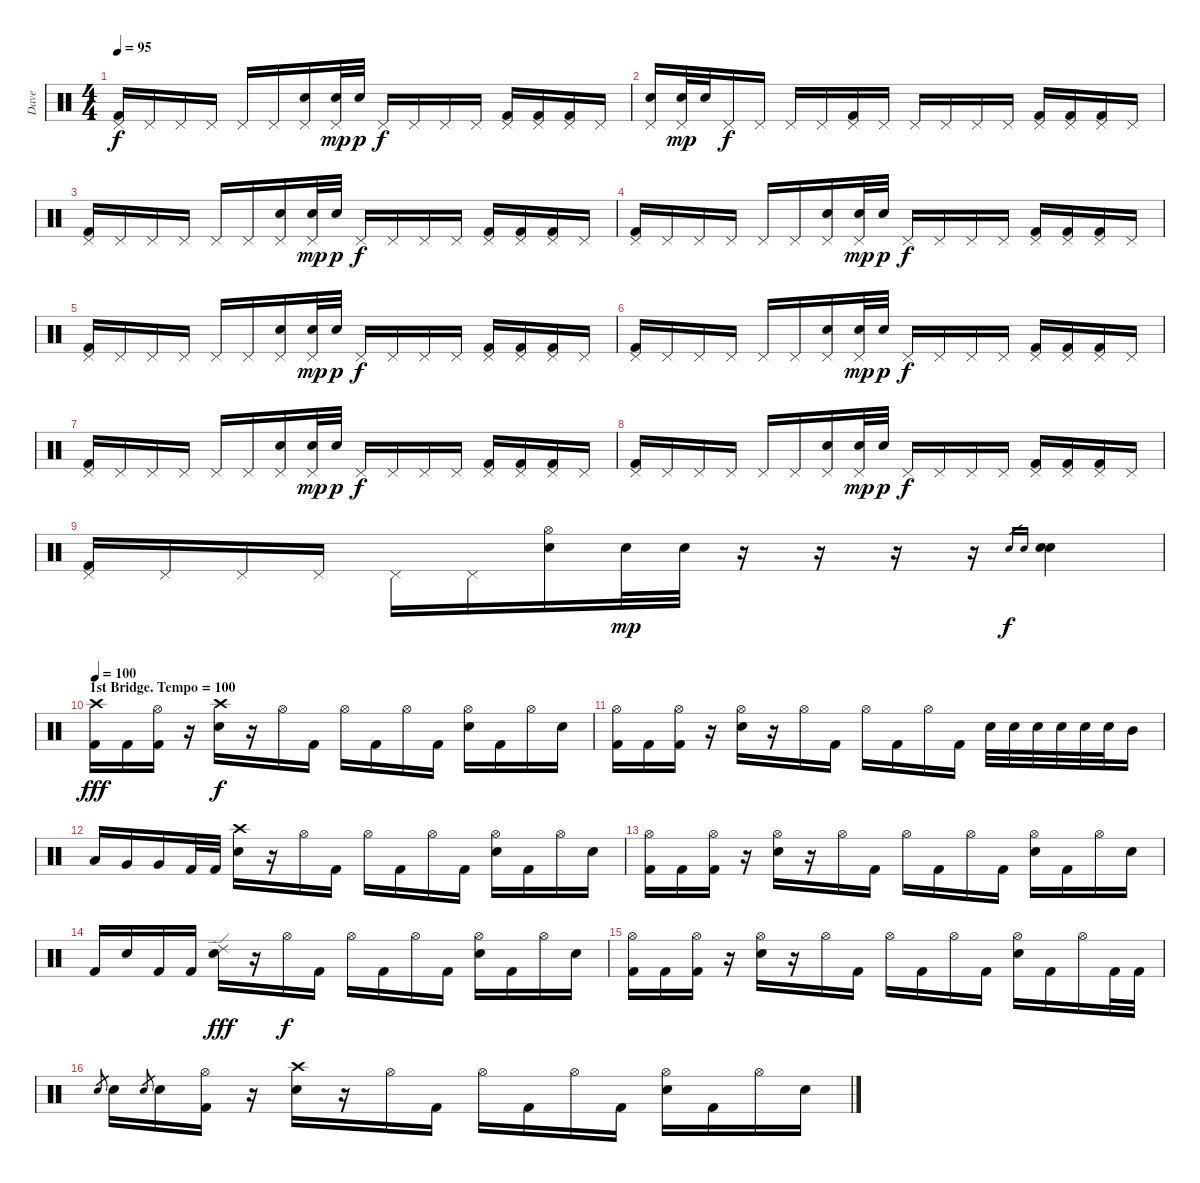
\track ("Dave" "Dave") {instrument percussion}
\staff {score}
\articulation defaults
\ts (4 4)
\tempo 95
\clef neutral
\ks c
("Pedal Hi-Hat (hit)" "Kick (hit) 2").16{dy f} "Pedal Hi-Hat (hit)".16 "Pedal Hi-Hat (hit)".16 "Pedal Hi-Hat (hit)".16 "Pedal Hi-Hat (hit)".16 "Pedal Hi-Hat (hit)".16 ("Pedal Hi-Hat (hit)" "Electric Snare (hit)").16 ("Pedal Hi-Hat (hit)" "Electric Snare (hit)").32{dy mp} "Electric Snare (hit)".32{dy p} "Pedal Hi-Hat (hit)".16{dy f} "Pedal Hi-Hat (hit)".16 "Pedal Hi-Hat (hit)".16 "Pedal Hi-Hat (hit)".16 ("Pedal Hi-Hat (hit)" "Kick (hit) 2").16 ("Pedal Hi-Hat (hit)" "Kick (hit) 2").16 ("Pedal Hi-Hat (hit)" "Kick (hit) 2").16 "Pedal Hi-Hat (hit)".16 |
("Pedal Hi-Hat (hit)" "Electric Snare (hit)").16 ("Pedal Hi-Hat (hit)" "Electric Snare (hit)").32{dy mp} "Electric Snare (hit)".32 "Pedal Hi-Hat (hit)".16{dy f} "Pedal Hi-Hat (hit)".16 "Pedal Hi-Hat (hit)".16 "Pedal Hi-Hat (hit)".16 ("Pedal Hi-Hat (hit)" "Kick (hit) 2").16 "Pedal Hi-Hat (hit)".16 "Pedal Hi-Hat (hit)".16 "Pedal Hi-Hat (hit)".16 "Pedal Hi-Hat (hit)".16 "Pedal Hi-Hat (hit)".16 ("Pedal Hi-Hat (hit)" "Kick (hit) 2").16 ("Pedal Hi-Hat (hit)" "Kick (hit) 2").16 ("Pedal Hi-Hat (hit)" "Kick (hit) 2").16 "Pedal Hi-Hat (hit)".16 |
("Pedal Hi-Hat (hit)" "Kick (hit) 2").16 "Pedal Hi-Hat (hit)".16 "Pedal Hi-Hat (hit)".16 "Pedal Hi-Hat (hit)".16 "Pedal Hi-Hat (hit)".16 "Pedal Hi-Hat (hit)".16 ("Pedal Hi-Hat (hit)" "Electric Snare (hit)").16 ("Pedal Hi-Hat (hit)" "Electric Snare (hit)").32{dy mp} "Electric Snare (hit)".32{dy p} "Pedal Hi-Hat (hit)".16{dy f} "Pedal Hi-Hat (hit)".16 "Pedal Hi-Hat (hit)".16 "Pedal Hi-Hat (hit)".16 ("Pedal Hi-Hat (hit)" "Kick (hit) 2").16 ("Pedal Hi-Hat (hit)" "Kick (hit) 2").16 ("Pedal Hi-Hat (hit)" "Kick (hit) 2").16 "Pedal Hi-Hat (hit)".16 |
("Pedal Hi-Hat (hit)" "Kick (hit) 2").16 "Pedal Hi-Hat (hit)".16 "Pedal Hi-Hat (hit)".16 "Pedal Hi-Hat (hit)".16 "Pedal Hi-Hat (hit)".16 "Pedal Hi-Hat (hit)".16 ("Pedal Hi-Hat (hit)" "Electric Snare (hit)").16 ("Pedal Hi-Hat (hit)" "Electric Snare (hit)").32{dy mp} "Electric Snare (hit)".32{dy p} "Pedal Hi-Hat (hit)".16{dy f} "Pedal Hi-Hat (hit)".16 "Pedal Hi-Hat (hit)".16 "Pedal Hi-Hat (hit)".16 ("Pedal Hi-Hat (hit)" "Kick (hit) 2").16 ("Pedal Hi-Hat (hit)" "Kick (hit) 2").16 ("Pedal Hi-Hat (hit)" "Kick (hit) 2").16 "Pedal Hi-Hat (hit)".16 |
("Pedal Hi-Hat (hit)" "Kick (hit) 2").16 "Pedal Hi-Hat (hit)".16 "Pedal Hi-Hat (hit)".16 "Pedal Hi-Hat (hit)".16 "Pedal Hi-Hat (hit)".16 "Pedal Hi-Hat (hit)".16 ("Pedal Hi-Hat (hit)" "Electric Snare (hit)").16 ("Pedal Hi-Hat (hit)" "Electric Snare (hit)").32{dy mp} "Electric Snare (hit)".32{dy p} "Pedal Hi-Hat (hit)".16{dy f} "Pedal Hi-Hat (hit)".16 "Pedal Hi-Hat (hit)".16 "Pedal Hi-Hat (hit)".16 ("Pedal Hi-Hat (hit)" "Kick (hit) 2").16 ("Pedal Hi-Hat (hit)" "Kick (hit) 2").16 ("Pedal Hi-Hat (hit)" "Kick (hit) 2").16 "Pedal Hi-Hat (hit)".16 |
("Pedal Hi-Hat (hit)" "Kick (hit) 2").16 "Pedal Hi-Hat (hit)".16 "Pedal Hi-Hat (hit)".16 "Pedal Hi-Hat (hit)".16 "Pedal Hi-Hat (hit)".16 "Pedal Hi-Hat (hit)".16 ("Pedal Hi-Hat (hit)" "Electric Snare (hit)").16 ("Pedal Hi-Hat (hit)" "Electric Snare (hit)").32{dy mp} "Electric Snare (hit)".32{dy p} "Pedal Hi-Hat (hit)".16{dy f} "Pedal Hi-Hat (hit)".16 "Pedal Hi-Hat (hit)".16 "Pedal Hi-Hat (hit)".16 ("Pedal Hi-Hat (hit)" "Kick (hit) 2").16 ("Pedal Hi-Hat (hit)" "Kick (hit) 2").16 ("Pedal Hi-Hat (hit)" "Kick (hit) 2").16 "Pedal Hi-Hat (hit)".16 |
("Pedal Hi-Hat (hit)" "Kick (hit) 2").16 "Pedal Hi-Hat (hit)".16 "Pedal Hi-Hat (hit)".16 "Pedal Hi-Hat (hit)".16 "Pedal Hi-Hat (hit)".16 "Pedal Hi-Hat (hit)".16 ("Pedal Hi-Hat (hit)" "Electric Snare (hit)").16 ("Pedal Hi-Hat (hit)" "Electric Snare (hit)").32{dy mp} "Electric Snare (hit)".32{dy p} "Pedal Hi-Hat (hit)".16{dy f} "Pedal Hi-Hat (hit)".16 "Pedal Hi-Hat (hit)".16 "Pedal Hi-Hat (hit)".16 ("Pedal Hi-Hat (hit)" "Kick (hit) 2").16 ("Pedal Hi-Hat (hit)" "Kick (hit) 2").16 ("Pedal Hi-Hat (hit)" "Kick (hit) 2").16 "Pedal Hi-Hat (hit)".16 |
("Pedal Hi-Hat (hit)" "Kick (hit) 2").16 "Pedal Hi-Hat (hit)".16 "Pedal Hi-Hat (hit)".16 "Pedal Hi-Hat (hit)".16 "Pedal Hi-Hat (hit)".16 "Pedal Hi-Hat (hit)".16 ("Pedal Hi-Hat (hit)" "Electric Snare (hit)").16 ("Pedal Hi-Hat (hit)" "Electric Snare (hit)").32{dy mp} "Electric Snare (hit)".32{dy p} "Pedal Hi-Hat (hit)".16{dy f} "Pedal Hi-Hat (hit)".16 "Pedal Hi-Hat (hit)".16 "Pedal Hi-Hat (hit)".16 ("Pedal Hi-Hat (hit)" "Kick (hit) 2").16 ("Pedal Hi-Hat (hit)" "Kick (hit) 2").16 ("Pedal Hi-Hat (hit)" "Kick (hit) 2").16 "Pedal Hi-Hat (hit)".16 |
("Pedal Hi-Hat (hit)" "Kick (hit) 2").16 "Pedal Hi-Hat (hit)".16 "Pedal Hi-Hat (hit)".16 "Pedal Hi-Hat (hit)".16 "Pedal Hi-Hat (hit)".16 "Pedal Hi-Hat (hit)".16 ("Hi-Hat (open)" "Electric Snare (hit)").16 "Electric Snare (hit)".32{dy mp} "Electric Snare (hit)".32 r.16 r.16 r.16 r.16 "Electric Snare (hit)".16{gr dy f} "Electric Snare (hit)".16{gr} ("Electric Snare (hit)" "Electric Snare (hit)").4 |
\section ("" "1st Bridge. Tempo = 100")
\tempo 100
("Crash high (hit)" "Kick (hit) 2").16{dy fff} "Kick (hit) 2".16 ("Hi-Hat (open)" "Kick (hit) 2").16 r.16 ("Crash high (hit)" "Electric Snare (hit)").16{dy f} r.16 "Hi-Hat (open)".16 "Kick (hit) 2".16 "Hi-Hat (open)".16 "Kick (hit) 2".16 "Hi-Hat (open)".16 "Kick (hit) 2".16 ("Hi-Hat (open)" "Electric Snare (hit)").16 "Kick (hit) 2".16 "Hi-Hat (open)".16 "Electric Snare (hit)".16 |
("Hi-Hat (open)" "Kick (hit) 2").16 "Kick (hit) 2".16 ("Hi-Hat (open)" "Kick (hit) 2").16 r.16 ("Hi-Hat (open)" "Electric Snare (hit)").16 r.16 "Hi-Hat (open)".16 "Kick (hit) 2".16 "Hi-Hat (open)".16 "Kick (hit) 2".16 "Hi-Hat (open)".16 "Kick (hit) 2".16 "Electric Snare (hit)".32 "Electric Snare (hit)".32 "Electric Snare (hit)".32 "Electric Snare (hit)".32 "Electric Snare (hit)".32 "Electric Snare (hit)".32 "Mid Tom (hit)".16 |
"Low Tom (hit)".16 "Very Low Tom (hit)".16 "Very Low Tom (hit)".16 "Kick (hit) 2".32 "Kick (hit) 2".32 ("Crash high (hit)" "Electric Snare (hit)").16 r.16 "Hi-Hat (open)".16 "Kick (hit) 2".16 "Hi-Hat (open)".16 "Kick (hit) 2".16 "Hi-Hat (open)".16 "Kick (hit) 2".16 ("Hi-Hat (open)" "Electric Snare (hit)").16 "Kick (hit) 2".16 "Hi-Hat (open)".16 "Electric Snare (hit)".16 |
("Hi-Hat (open)" "Kick (hit) 2").16 "Kick (hit) 2".16 ("Hi-Hat (open)" "Kick (hit) 2").16 r.16 ("Hi-Hat (open)" "Electric Snare (hit)").16 r.16 "Hi-Hat (open)".16 "Kick (hit) 2".16 "Hi-Hat (open)".16 "Kick (hit) 2".16 "Hi-Hat (open)".16 "Kick (hit) 2".16 ("Hi-Hat (open)" "Electric Snare (hit)").16 "Kick (hit) 2".16 "Hi-Hat (open)".16 "Electric Snare (hit)".16 |
"Kick (hit) 2".16 "Electric Snare (hit)".16 "Kick (hit) 2".16 "Kick (hit) 2".16 ("Ride (edge) 2" "Electric Snare (hit)").16{dy fff} r.16 "Hi-Hat (open)".16{dy f} "Kick (hit) 2".16 "Hi-Hat (open)".16 "Kick (hit) 2".16 "Hi-Hat (open)".16 "Kick (hit) 2".16 ("Hi-Hat (open)" "Electric Snare (hit)").16 "Kick (hit) 2".16 "Hi-Hat (open)".16 "Electric Snare (hit)".16 |
("Hi-Hat (open)" "Kick (hit) 2").16 "Kick (hit) 2".16 ("Hi-Hat (open)" "Kick (hit) 2").16 r.16 ("Hi-Hat (open)" "Electric Snare (hit)").16 r.16 "Hi-Hat (open)".16 "Kick (hit) 2".16 "Hi-Hat (open)".16 "Kick (hit) 2".16 "Hi-Hat (open)".16 "Kick (hit) 2".16 ("Hi-Hat (open)" "Electric Snare (hit)").16 "Kick (hit) 2".16 "Hi-Hat (open)".16 "Kick (hit) 2".32 "Kick (hit) 2".32 |
"Electric Snare (hit)".8{gr} "Electric Snare (hit)".16 "Electric Snare (hit)".8{gr} "Electric Snare (hit)".16 ("Hi-Hat (open)" "Kick (hit) 2").16 r.16 ("Crash high (hit)" "Electric Snare (hit)").16 r.16 "Hi-Hat (open)".16 "Kick (hit) 2".16 "Hi-Hat (open)".16 "Kick (hit) 2".16 "Hi-Hat (open)".16 "Kick (hit) 2".16 ("Hi-Hat (open)" "Electric Snare (hit)").16 "Kick (hit) 2".16 "Hi-Hat (open)".16 "Electric Snare (hit)".16
